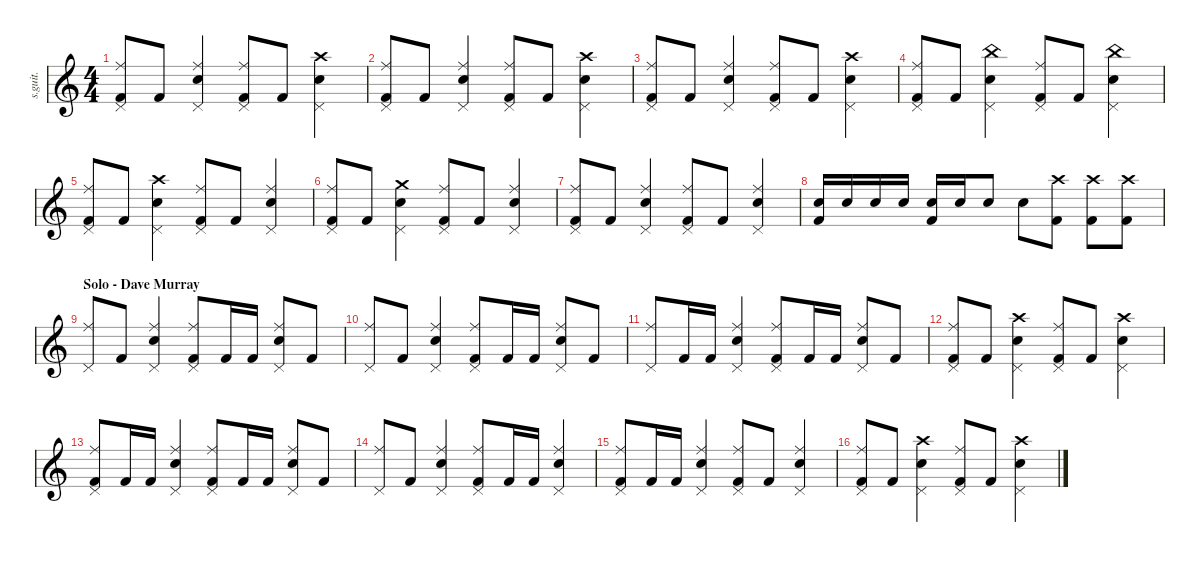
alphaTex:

\defaultSystemsLayout 4
\hideDynamics
\bracketExtendMode nobrackets
\track ("Nicko McBrain" "s.guit.") {instrument percussion}
\staff {score}
\articulation defaults
\ts (4 4)
\tempo (162 hide)
\clef g2
\ks c
("Pedal Hi-Hat (hit)" "Kick (hit) 2" "Ride (middle)").8{dy mf} "Kick (hit) 2".8 ("Snare (hit) 2" "Pedal Hi-Hat (hit)" "Ride (middle)").4 ("Pedal Hi-Hat (hit)" "Kick (hit) 2" "Ride (middle)").8 "Kick (hit) 2".8 ("Snare (hit) 2" "Pedal Hi-Hat (hit)" "Crash high (hit)").4 |
("Pedal Hi-Hat (hit)" "Kick (hit) 2" "Ride (middle)").8 "Kick (hit) 2".8 ("Snare (hit) 2" "Pedal Hi-Hat (hit)" "Ride (middle)").4 ("Pedal Hi-Hat (hit)" "Kick (hit) 2" "Ride (middle)").8 "Kick (hit) 2".8 ("Snare (hit) 2" "Pedal Hi-Hat (hit)" "Crash high (hit)").4 |
("Pedal Hi-Hat (hit)" "Kick (hit) 2" "Ride (middle)").8 "Kick (hit) 2".8 ("Snare (hit) 2" "Pedal Hi-Hat (hit)" "Ride (middle)").4 ("Pedal Hi-Hat (hit)" "Kick (hit) 2" "Ride (middle)").8 "Kick (hit) 2".8 ("Snare (hit) 2" "Pedal Hi-Hat (hit)" "Crash high (hit)").4 |
("Pedal Hi-Hat (hit)" "Kick (hit) 2" "Ride (middle)").8 "Kick (hit) 2".8 ("Snare (hit) 2" "Pedal Hi-Hat (hit)" "China (hit)").4 ("Pedal Hi-Hat (hit)" "Kick (hit) 2" "Ride (middle)").8 "Kick (hit) 2".8 ("Snare (hit) 2" "Pedal Hi-Hat (hit)" "China (hit)").4 |
("Pedal Hi-Hat (hit)" "Kick (hit) 2" "Ride (middle)").8 "Kick (hit) 2".8 ("Snare (hit) 2" "Pedal Hi-Hat (hit)" "Crash high (hit)").4 ("Pedal Hi-Hat (hit)" "Kick (hit) 2" "Ride (middle)").8 "Kick (hit) 2".8 ("Snare (hit) 2" "Pedal Hi-Hat (hit)" "Ride (middle)").4 |
("Pedal Hi-Hat (hit)" "Kick (hit) 2" "Ride (middle)").8 "Kick (hit) 2".8 ("Snare (hit) 2" "Pedal Hi-Hat (hit)" "Crash medium (hit)").4 ("Pedal Hi-Hat (hit)" "Kick (hit) 2" "Ride (middle)").8 "Kick (hit) 2".8 ("Snare (hit) 2" "Pedal Hi-Hat (hit)" "Ride (middle)").4 |
("Pedal Hi-Hat (hit)" "Kick (hit) 2" "Ride (middle)").8 "Kick (hit) 2".8 ("Snare (hit) 2" "Pedal Hi-Hat (hit)" "Ride (middle)").4 ("Pedal Hi-Hat (hit)" "Kick (hit) 2" "Ride (middle)").8 "Kick (hit) 2".8 ("Snare (hit) 2" "Pedal Hi-Hat (hit)" "Ride (middle)").4 |
("Snare (hit) 2" "Kick (hit) 2").16 "Snare (hit) 2".16 "Snare (hit) 2".16 "Snare (hit) 2".16 ("Snare (hit) 2" "Kick (hit) 2").16 "Snare (hit) 2".16 "Snare (hit) 2".8 "Snare (hit) 2".8 ("Kick (hit) 2" "Crash high (hit)").8 ("Crash high (hit)" "Kick (hit) 2").8 ("Crash high (hit)" "Kick (hit) 2").8 |
\section ("" "Solo - Dave Murray")
("Pedal Hi-Hat (hit)" "Ride (middle)").8 "Kick (hit) 2".8 ("Pedal Hi-Hat (hit)" "Snare (hit) 2" "Ride (middle)").4 ("Ride (middle)" "Pedal Hi-Hat (hit)" "Kick (hit) 2").8 "Kick (hit) 2".16 "Kick (hit) 2".16 ("Pedal Hi-Hat (hit)" "Snare (hit) 2" "Ride (middle)").8 "Kick (hit) 2".8 |
("Pedal Hi-Hat (hit)" "Ride (middle)").8 "Kick (hit) 2".8 ("Pedal Hi-Hat (hit)" "Snare (hit) 2" "Ride (middle)").4 ("Ride (middle)" "Pedal Hi-Hat (hit)" "Kick (hit) 2").8 "Kick (hit) 2".16 "Kick (hit) 2".16 ("Pedal Hi-Hat (hit)" "Snare (hit) 2" "Ride (middle)").8 "Kick (hit) 2".8 |
("Pedal Hi-Hat (hit)" "Ride (middle)").8 "Kick (hit) 2".16 "Kick (hit) 2".16 ("Pedal Hi-Hat (hit)" "Snare (hit) 2" "Ride (middle)").4 ("Ride (middle)" "Pedal Hi-Hat (hit)" "Kick (hit) 2").8 "Kick (hit) 2".16 "Kick (hit) 2".16 ("Pedal Hi-Hat (hit)" "Snare (hit) 2" "Ride (middle)").8 "Kick (hit) 2".8 |
("Pedal Hi-Hat (hit)" "Kick (hit) 2" "Ride (middle)").8 "Kick (hit) 2".8 ("Snare (hit) 2" "Pedal Hi-Hat (hit)" "Crash high (hit)").4 ("Pedal Hi-Hat (hit)" "Kick (hit) 2" "Ride (middle)").8 "Kick (hit) 2".8 ("Snare (hit) 2" "Pedal Hi-Hat (hit)" "Crash high (hit)").4 |
("Ride (middle)" "Pedal Hi-Hat (hit)" "Kick (hit) 2").8 "Kick (hit) 2".16 "Kick (hit) 2".16 ("Pedal Hi-Hat (hit)" "Snare (hit) 2" "Ride (middle)").4 ("Ride (middle)" "Pedal Hi-Hat (hit)" "Kick (hit) 2").8 "Kick (hit) 2".16 "Kick (hit) 2".16 ("Pedal Hi-Hat (hit)" "Snare (hit) 2" "Ride (middle)").8 "Kick (hit) 2".8 |
("Pedal Hi-Hat (hit)" "Ride (middle)").8 "Kick (hit) 2".8 ("Pedal Hi-Hat (hit)" "Snare (hit) 2" "Ride (middle)").4 ("Ride (middle)" "Pedal Hi-Hat (hit)" "Kick (hit) 2").8 "Kick (hit) 2".16 "Kick (hit) 2".16 ("Pedal Hi-Hat (hit)" "Snare (hit) 2" "Ride (middle)").4 |
("Ride (middle)" "Pedal Hi-Hat (hit)" "Kick (hit) 2").8 "Kick (hit) 2".16 "Kick (hit) 2".16 ("Pedal Hi-Hat (hit)" "Snare (hit) 2" "Ride (middle)").4 ("Pedal Hi-Hat (hit)" "Ride (middle)" "Kick (hit) 2").8 "Kick (hit) 2".8 ("Pedal Hi-Hat (hit)" "Snare (hit) 2" "Ride (middle)").4 |
("Pedal Hi-Hat (hit)" "Kick (hit) 2" "Ride (middle)").8 "Kick (hit) 2".8 ("Snare (hit) 2" "Pedal Hi-Hat (hit)" "Crash high (hit)").4 ("Pedal Hi-Hat (hit)" "Kick (hit) 2" "Ride (middle)").8 "Kick (hit) 2".8 ("Snare (hit) 2" "Pedal Hi-Hat (hit)" "Crash high (hit)").4
